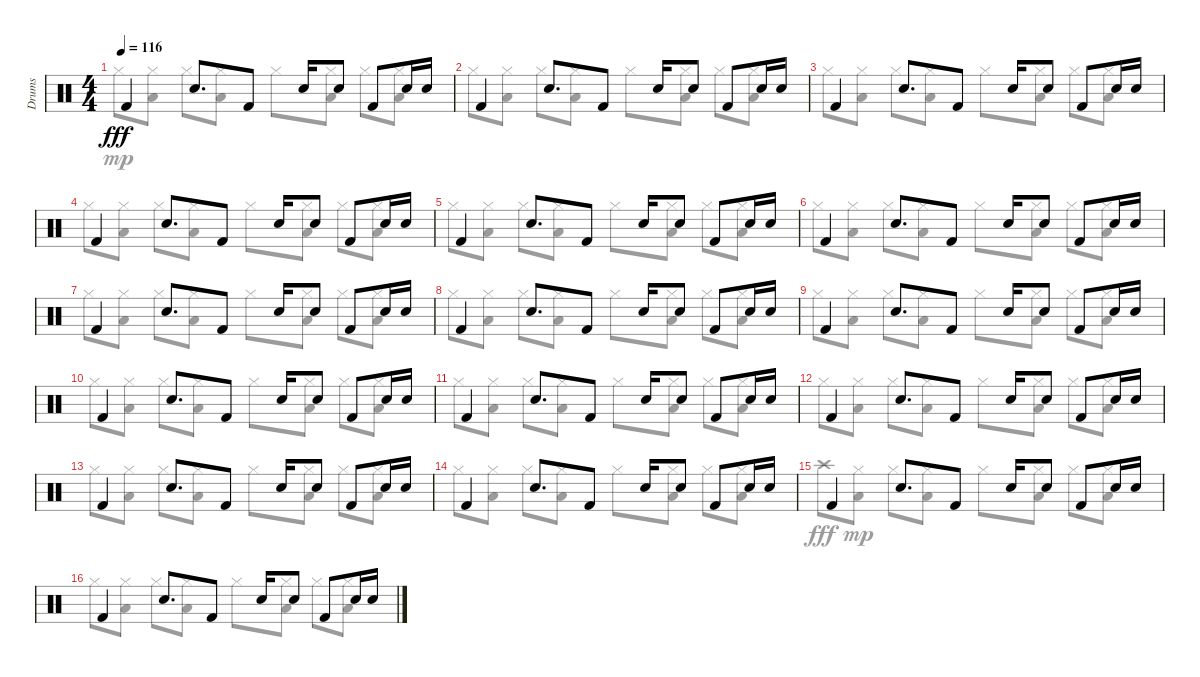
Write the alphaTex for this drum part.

\track ("Drums" "Drums") {instrument percussion}
\staff {score}
\articulation defaults
\voice
\ts (4 4)
\tempo 116
\clef neutral
\ks c "Kick (hit) 2".4{dy fff} "Electric Snare (hit)".8{d} "Kick (hit) 2".8 "Electric Snare (hit)".16 "Electric Snare (hit)".8 "Kick (hit) 2".8 "Electric Snare (hit)".16 "Electric Snare (hit)".16
|
"Kick (hit) 2".4 "Electric Snare (hit)".8{d} "Kick (hit) 2".8 "Electric Snare (hit)".16 "Electric Snare (hit)".8 "Kick (hit) 2".8 "Electric Snare (hit)".16 "Electric Snare (hit)".16 |
"Kick (hit) 2".4 "Electric Snare (hit)".8{d} "Kick (hit) 2".8 "Electric Snare (hit)".16 "Electric Snare (hit)".8 "Kick (hit) 2".8 "Electric Snare (hit)".16 "Electric Snare (hit)".16 |
"Kick (hit) 2".4 "Electric Snare (hit)".8{d} "Kick (hit) 2".8 "Electric Snare (hit)".16 "Electric Snare (hit)".8 "Kick (hit) 2".8 "Electric Snare (hit)".16 "Electric Snare (hit)".16 |
"Kick (hit) 2".4 "Electric Snare (hit)".8{d} "Kick (hit) 2".8 "Electric Snare (hit)".16 "Electric Snare (hit)".8 "Kick (hit) 2".8 "Electric Snare (hit)".16 "Electric Snare (hit)".16 |
"Kick (hit) 2".4 "Electric Snare (hit)".8{d} "Kick (hit) 2".8 "Electric Snare (hit)".16 "Electric Snare (hit)".8 "Kick (hit) 2".8 "Electric Snare (hit)".16 "Electric Snare (hit)".16 |
"Kick (hit) 2".4 "Electric Snare (hit)".8{d} "Kick (hit) 2".8 "Electric Snare (hit)".16 "Electric Snare (hit)".8 "Kick (hit) 2".8 "Electric Snare (hit)".16 "Electric Snare (hit)".16 |
"Kick (hit) 2".4 "Electric Snare (hit)".8{d} "Kick (hit) 2".8 "Electric Snare (hit)".16 "Electric Snare (hit)".8 "Kick (hit) 2".8 "Electric Snare (hit)".16 "Electric Snare (hit)".16 |
"Kick (hit) 2".4 "Electric Snare (hit)".8{d} "Kick (hit) 2".8 "Electric Snare (hit)".16 "Electric Snare (hit)".8 "Kick (hit) 2".8 "Electric Snare (hit)".16 "Electric Snare (hit)".16 |
"Kick (hit) 2".4 "Electric Snare (hit)".8{d} "Kick (hit) 2".8 "Electric Snare (hit)".16 "Electric Snare (hit)".8 "Kick (hit) 2".8 "Electric Snare (hit)".16 "Electric Snare (hit)".16 |
"Kick (hit) 2".4 "Electric Snare (hit)".8{d} "Kick (hit) 2".8 "Electric Snare (hit)".16 "Electric Snare (hit)".8 "Kick (hit) 2".8 "Electric Snare (hit)".16 "Electric Snare (hit)".16 |
"Kick (hit) 2".4 "Electric Snare (hit)".8{d} "Kick (hit) 2".8 "Electric Snare (hit)".16 "Electric Snare (hit)".8 "Kick (hit) 2".8 "Electric Snare (hit)".16 "Electric Snare (hit)".16 |
"Kick (hit) 2".4 "Electric Snare (hit)".8{d} "Kick (hit) 2".8 "Electric Snare (hit)".16 "Electric Snare (hit)".8 "Kick (hit) 2".8 "Electric Snare (hit)".16 "Electric Snare (hit)".16 |
"Kick (hit) 2".4 "Electric Snare (hit)".8{d} "Kick (hit) 2".8 "Electric Snare (hit)".16 "Electric Snare (hit)".8 "Kick (hit) 2".8 "Electric Snare (hit)".16 "Electric Snare (hit)".16 |
"Kick (hit) 2".4 "Electric Snare (hit)".8{d} "Kick (hit) 2".8 "Electric Snare (hit)".16 "Electric Snare (hit)".8 "Kick (hit) 2".8 "Electric Snare (hit)".16 "Electric Snare (hit)".16 |
"Kick (hit) 2".4 "Electric Snare (hit)".8{d} "Kick (hit) 2".8 "Electric Snare (hit)".16 "Electric Snare (hit)".8 "Kick (hit) 2".8 "Electric Snare (hit)".16 "Electric Snare (hit)".16
\voice
\clef neutral
\ottava regular
\simile none
\ks c "Hi-Hat (closed)".8{dy mp}
("Hi-Hat (closed)" "Low Floor Tom (hit)").8 "Hi-Hat (closed)".8 ("Hi-Hat (closed)" "Low Floor Tom (hit)").8 "Hi-Hat (closed)".8 ("Hi-Hat (closed)" "Low Floor Tom (hit)").8 "Hi-Hat (closed)".8 ("Hi-Hat (closed)" "Low Floor Tom (hit)").8 |
"Hi-Hat (closed)".8 ("Hi-Hat (closed)" "Low Floor Tom (hit)").8 "Hi-Hat (closed)".8 ("Hi-Hat (closed)" "Low Floor Tom (hit)").8 "Hi-Hat (closed)".8 ("Hi-Hat (closed)" "Low Floor Tom (hit)").8 "Hi-Hat (closed)".8 ("Hi-Hat (closed)" "Low Floor Tom (hit)").8 |
"Hi-Hat (closed)".8 ("Hi-Hat (closed)" "Low Floor Tom (hit)").8 "Hi-Hat (closed)".8 ("Hi-Hat (closed)" "Low Floor Tom (hit)").8 "Hi-Hat (closed)".8 ("Hi-Hat (closed)" "Low Floor Tom (hit)").8 "Hi-Hat (closed)".8 ("Hi-Hat (closed)" "Low Floor Tom (hit)").8 |
"Hi-Hat (closed)".8 ("Hi-Hat (closed)" "Low Floor Tom (hit)").8 "Hi-Hat (closed)".8 ("Hi-Hat (closed)" "Low Floor Tom (hit)").8 "Hi-Hat (closed)".8 ("Hi-Hat (closed)" "Low Floor Tom (hit)").8 "Hi-Hat (closed)".8 ("Hi-Hat (closed)" "Low Floor Tom (hit)").8 |
"Hi-Hat (closed)".8 ("Hi-Hat (closed)" "Low Floor Tom (hit)").8 "Hi-Hat (closed)".8 ("Hi-Hat (closed)" "Low Floor Tom (hit)").8 "Hi-Hat (closed)".8 ("Hi-Hat (closed)" "Low Floor Tom (hit)").8 "Hi-Hat (closed)".8 ("Hi-Hat (closed)" "Low Floor Tom (hit)").8 |
"Hi-Hat (closed)".8 ("Hi-Hat (closed)" "Low Floor Tom (hit)").8 "Hi-Hat (closed)".8 ("Hi-Hat (closed)" "Low Floor Tom (hit)").8 "Hi-Hat (closed)".8 ("Hi-Hat (closed)" "Low Floor Tom (hit)").8 "Hi-Hat (closed)".8 ("Hi-Hat (closed)" "Low Floor Tom (hit)").8 |
"Hi-Hat (closed)".8 ("Hi-Hat (closed)" "Low Floor Tom (hit)").8 "Hi-Hat (closed)".8 ("Hi-Hat (closed)" "Low Floor Tom (hit)").8 "Hi-Hat (closed)".8 ("Hi-Hat (closed)" "Low Floor Tom (hit)").8 "Hi-Hat (closed)".8 ("Hi-Hat (closed)" "Low Floor Tom (hit)").8 |
"Hi-Hat (closed)".8 ("Hi-Hat (closed)" "Low Floor Tom (hit)").8 "Hi-Hat (closed)".8 ("Hi-Hat (closed)" "Low Floor Tom (hit)").8 "Hi-Hat (closed)".8 ("Hi-Hat (closed)" "Low Floor Tom (hit)").8 "Hi-Hat (closed)".8 ("Hi-Hat (closed)" "Low Floor Tom (hit)").8 |
"Hi-Hat (closed)".8 ("Hi-Hat (closed)" "Low Floor Tom (hit)").8 "Hi-Hat (closed)".8 ("Hi-Hat (closed)" "Low Floor Tom (hit)").8 "Hi-Hat (closed)".8 ("Hi-Hat (closed)" "Low Floor Tom (hit)").8 "Hi-Hat (closed)".8 ("Hi-Hat (closed)" "Low Floor Tom (hit)").8 |
"Hi-Hat (closed)".8 ("Hi-Hat (closed)" "Low Floor Tom (hit)").8 "Hi-Hat (closed)".8 ("Hi-Hat (closed)" "Low Floor Tom (hit)").8 "Hi-Hat (closed)".8 ("Hi-Hat (closed)" "Low Floor Tom (hit)").8 "Hi-Hat (closed)".8 ("Hi-Hat (closed)" "Low Floor Tom (hit)").8 |
"Hi-Hat (closed)".8 ("Hi-Hat (closed)" "Low Floor Tom (hit)").8 "Hi-Hat (closed)".8 ("Hi-Hat (closed)" "Low Floor Tom (hit)").8 "Hi-Hat (closed)".8 ("Hi-Hat (closed)" "Low Floor Tom (hit)").8 "Hi-Hat (closed)".8 ("Hi-Hat (closed)" "Low Floor Tom (hit)").8 |
"Hi-Hat (closed)".8 ("Hi-Hat (closed)" "Low Floor Tom (hit)").8 "Hi-Hat (closed)".8 ("Hi-Hat (closed)" "Low Floor Tom (hit)").8 "Hi-Hat (closed)".8 ("Hi-Hat (closed)" "Low Floor Tom (hit)").8 "Hi-Hat (closed)".8 ("Hi-Hat (closed)" "Low Floor Tom (hit)").8 |
"Hi-Hat (closed)".8 ("Hi-Hat (closed)" "Low Floor Tom (hit)").8 "Hi-Hat (closed)".8 ("Hi-Hat (closed)" "Low Floor Tom (hit)").8 "Hi-Hat (closed)".8 ("Hi-Hat (closed)" "Low Floor Tom (hit)").8 "Hi-Hat (closed)".8 ("Hi-Hat (closed)" "Low Floor Tom (hit)").8 |
"Hi-Hat (closed)".8 ("Hi-Hat (closed)" "Low Floor Tom (hit)").8 "Hi-Hat (closed)".8 ("Hi-Hat (closed)" "Low Floor Tom (hit)").8 "Hi-Hat (closed)".8 ("Hi-Hat (closed)" "Low Floor Tom (hit)").8 "Hi-Hat (closed)".8 ("Hi-Hat (closed)" "Low Floor Tom (hit)").8 |
"Crash high (hit)".8{dy fff} ("Hi-Hat (closed)" "Low Floor Tom (hit)").8{dy mp} "Hi-Hat (closed)".8 ("Hi-Hat (closed)" "Low Floor Tom (hit)").8 "Hi-Hat (closed)".8 ("Hi-Hat (closed)" "Low Floor Tom (hit)").8 "Hi-Hat (closed)".8 ("Hi-Hat (closed)" "Low Floor Tom (hit)").8 |
"Hi-Hat (closed)".8 ("Hi-Hat (closed)" "Low Floor Tom (hit)").8 "Hi-Hat (closed)".8 ("Hi-Hat (closed)" "Low Floor Tom (hit)").8 "Hi-Hat (closed)".8 ("Hi-Hat (closed)" "Low Floor Tom (hit)").8 "Hi-Hat (closed)".8 ("Hi-Hat (closed)" "Low Floor Tom (hit)").8
